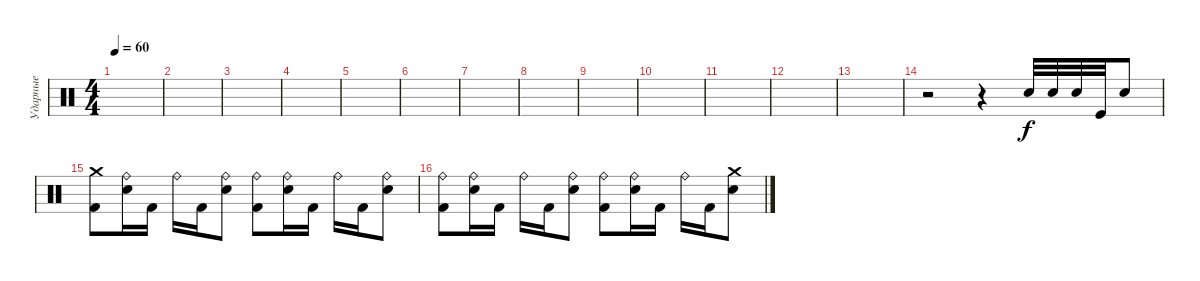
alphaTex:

\track ("Ударные" "Ударные") {instrument percussion}
\staff {score}
\articulation defaults
\ts (4 4)
\tempo 60
\clef neutral
\ks c
|
|
|
|
|
|
|
|
|
|
|
|
|
r.2 r.4 "Snare (hit) 2".32 "Snare (hit) 2".32 "Snare (hit) 2".32 "Kick (hit)".32 "Snare (hit) 2".8 |
("Crash medium (hit)" "Kick (hit) 2").8 ("Snare (hit) 2" "Ride (bell)").16 "Kick (hit) 2".16 "Ride (bell)".16 "Kick (hit) 2".16 ("Snare (hit) 2" "Ride (bell)").8 ("Ride (bell)" "Kick (hit) 2").8 ("Snare (hit) 2" "Ride (bell)").16 "Kick (hit) 2".16 "Ride (bell)".16 "Kick (hit) 2".16 ("Snare (hit) 2" "Ride (bell)").8 |
("Ride (bell)" "Kick (hit) 2").8 ("Snare (hit) 2" "Ride (bell)").16 "Kick (hit) 2".16 "Ride (bell)".16 "Kick (hit) 2".16 ("Snare (hit) 2" "Ride (bell)").8 ("Ride (bell)" "Kick (hit) 2").8 ("Snare (hit) 2" "Ride (bell)").16 "Kick (hit) 2".16 "Ride (bell)".16 "Kick (hit) 2".16 ("Snare (hit) 2" "Crash medium (hit)").8
